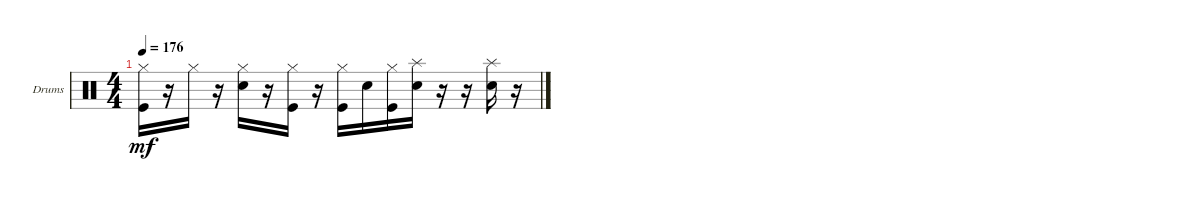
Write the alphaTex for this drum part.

\defaultSystemsLayout 4
\bracketExtendMode groupsimilarinstruments
\firstSystemTrackNameOrientation horizontal
\otherSystemsTrackNameOrientation horizontal
\track ("Drumkit" "Drums") {instrument percussion}
\staff {score}
\articulation defaults
\ts (4 4)
\tempo 176
\clef neutral
\ks c
("Hi-Hat (closed)" "Kick (hit)").16{dy mf} r.16 "Hi-Hat (closed)".16 r.16 ("Hi-Hat (closed)" "Snare (hit) 2").16 r.16 ("Hi-Hat (closed)" "Kick (hit)").16 r.16 ("Hi-Hat (closed)" "Kick (hit)").16 "Snare (hit) 2".16 ("Hi-Hat (closed)" "Kick (hit)").16 ("Splash (hit)" "Snare (hit) 2").16 r.16 r.16 ("Splash (hit)" "Snare (hit) 2").16 r.16
